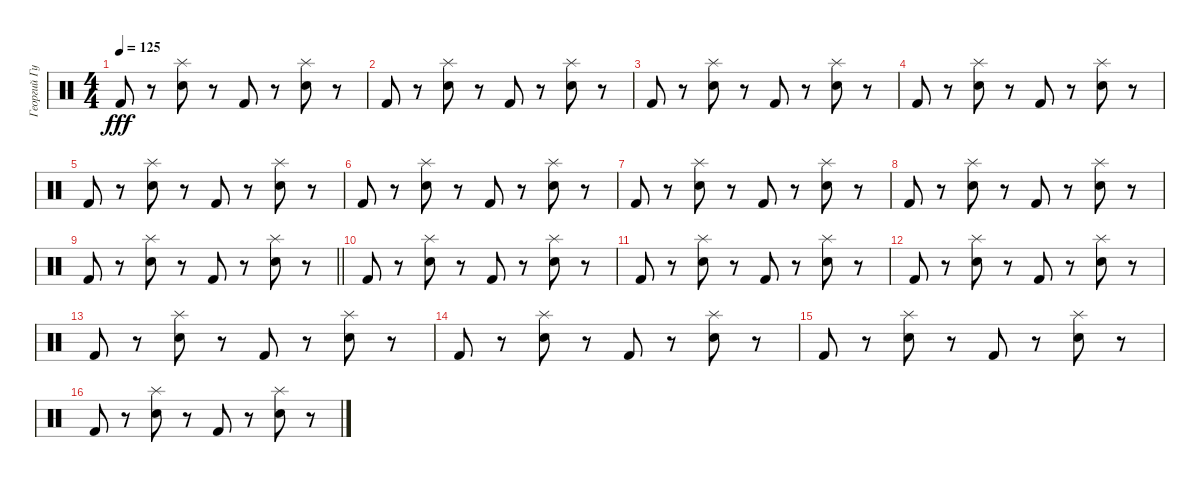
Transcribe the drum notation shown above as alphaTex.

\track ("Георгий Гурьянов" "Георгий Гу") {instrument percussion}
\staff {score}
\articulation defaults
\ts (4 4)
\tempo 125
\clef neutral
\ks c "Kick (hit) 2".8{dy fff}
r.8 ("Snare (hit) 2" "Splash (hit)").8 r.8 "Kick (hit) 2".8 r.8 ("Snare (hit) 2" "Splash (hit)").8 r.8 |
"Kick (hit) 2".8 r.8 ("Snare (hit) 2" "Splash (hit)").8 r.8 "Kick (hit) 2".8 r.8 ("Snare (hit) 2" "Splash (hit)").8 r.8 |
"Kick (hit) 2".8 r.8 ("Snare (hit) 2" "Splash (hit)").8 r.8 "Kick (hit) 2".8 r.8 ("Snare (hit) 2" "Splash (hit)").8 r.8 |
"Kick (hit) 2".8 r.8 ("Snare (hit) 2" "Splash (hit)").8 r.8 "Kick (hit) 2".8 r.8 ("Snare (hit) 2" "Splash (hit)").8 r.8 |
"Kick (hit) 2".8 r.8 ("Snare (hit) 2" "Splash (hit)").8 r.8 "Kick (hit) 2".8 r.8 ("Snare (hit) 2" "Splash (hit)").8 r.8 |
"Kick (hit) 2".8 r.8 ("Snare (hit) 2" "Splash (hit)").8 r.8 "Kick (hit) 2".8 r.8 ("Snare (hit) 2" "Splash (hit)").8 r.8 |
"Kick (hit) 2".8 r.8 ("Snare (hit) 2" "Splash (hit)").8 r.8 "Kick (hit) 2".8 r.8 ("Snare (hit) 2" "Splash (hit)").8 r.8 |
"Kick (hit) 2".8 r.8 ("Snare (hit) 2" "Splash (hit)").8 r.8 "Kick (hit) 2".8 r.8 ("Snare (hit) 2" "Splash (hit)").8 r.8 |
\barLineRight lightlight "Kick (hit) 2".8
r.8 ("Snare (hit) 2" "Splash (hit)").8 r.8 "Kick (hit) 2".8 r.8 ("Snare (hit) 2" "Splash (hit)").8 r.8 |
"Kick (hit) 2".8 r.8 ("Snare (hit) 2" "Splash (hit)").8 r.8 "Kick (hit) 2".8 r.8 ("Snare (hit) 2" "Splash (hit)").8 r.8 |
"Kick (hit) 2".8 r.8 ("Snare (hit) 2" "Splash (hit)").8 r.8 "Kick (hit) 2".8 r.8 ("Snare (hit) 2" "Splash (hit)").8 r.8 |
"Kick (hit) 2".8 r.8 ("Snare (hit) 2" "Splash (hit)").8 r.8 "Kick (hit) 2".8 r.8 ("Snare (hit) 2" "Splash (hit)").8 r.8 |
"Kick (hit) 2".8 r.8 ("Snare (hit) 2" "Splash (hit)").8 r.8 "Kick (hit) 2".8 r.8 ("Snare (hit) 2" "Splash (hit)").8 r.8 |
"Kick (hit) 2".8 r.8 ("Snare (hit) 2" "Splash (hit)").8 r.8 "Kick (hit) 2".8 r.8 ("Snare (hit) 2" "Splash (hit)").8 r.8 |
"Kick (hit) 2".8 r.8 ("Snare (hit) 2" "Splash (hit)").8 r.8 "Kick (hit) 2".8 r.8 ("Snare (hit) 2" "Splash (hit)").8 r.8 |
"Kick (hit) 2".8 r.8 ("Snare (hit) 2" "Splash (hit)").8 r.8 "Kick (hit) 2".8 r.8 ("Snare (hit) 2" "Splash (hit)").8 r.8
